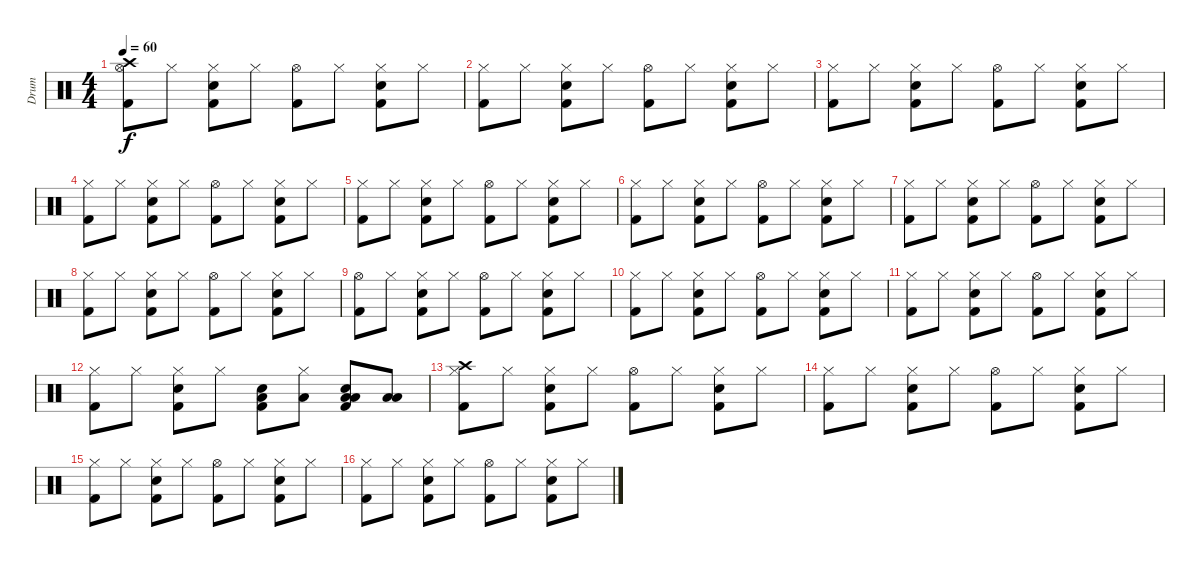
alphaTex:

\track ("Drum" "Drum") {instrument percussion}
\staff {score}
\articulation defaults
\ts (4 4)
\tempo 60
\clef neutral
\ks c
("Hi-Hat (open)" "Crash high (hit)" "Kick (hit) 2").8{dy f} "Hi-Hat (closed)".8 ("Snare (hit) 2" "Hi-Hat (closed)" "Kick (hit) 2").8 "Hi-Hat (closed)".8 ("Hi-Hat (open)" "Kick (hit) 2").8 "Hi-Hat (closed)".8 ("Snare (hit) 2" "Hi-Hat (closed)" "Kick (hit) 2").8 "Hi-Hat (closed)".8 |
("Hi-Hat (closed)" "Kick (hit) 2").8 "Hi-Hat (closed)".8 ("Hi-Hat (closed)" "Snare (hit) 2" "Kick (hit) 2").8 "Hi-Hat (closed)".8 ("Hi-Hat (open)" "Kick (hit) 2").8 "Hi-Hat (closed)".8 ("Snare (hit) 2" "Hi-Hat (closed)" "Kick (hit) 2").8 "Hi-Hat (closed)".8 |
("Hi-Hat (closed)" "Kick (hit) 2").8 "Hi-Hat (closed)".8 ("Hi-Hat (closed)" "Snare (hit) 2" "Kick (hit) 2").8 "Hi-Hat (closed)".8 ("Hi-Hat (open)" "Kick (hit) 2").8 "Hi-Hat (closed)".8 ("Snare (hit) 2" "Hi-Hat (closed)" "Kick (hit) 2").8 "Hi-Hat (closed)".8 |
("Hi-Hat (closed)" "Kick (hit) 2").8 "Hi-Hat (closed)".8 ("Hi-Hat (closed)" "Snare (hit) 2" "Kick (hit) 2").8 "Hi-Hat (closed)".8 ("Hi-Hat (open)" "Kick (hit) 2").8 "Hi-Hat (closed)".8 ("Snare (hit) 2" "Hi-Hat (closed)" "Kick (hit) 2").8 "Hi-Hat (closed)".8 |
("Hi-Hat (closed)" "Kick (hit) 2").8 "Hi-Hat (closed)".8 ("Hi-Hat (closed)" "Snare (hit) 2" "Kick (hit) 2").8 "Hi-Hat (closed)".8 ("Hi-Hat (open)" "Kick (hit) 2").8 "Hi-Hat (closed)".8 ("Snare (hit) 2" "Hi-Hat (closed)" "Kick (hit) 2").8 "Hi-Hat (closed)".8 |
("Hi-Hat (closed)" "Kick (hit) 2").8 "Hi-Hat (closed)".8 ("Hi-Hat (closed)" "Snare (hit) 2" "Kick (hit) 2").8 "Hi-Hat (closed)".8 ("Hi-Hat (open)" "Kick (hit) 2").8 "Hi-Hat (closed)".8 ("Snare (hit) 2" "Hi-Hat (closed)" "Kick (hit) 2").8 "Hi-Hat (closed)".8 |
("Hi-Hat (closed)" "Kick (hit) 2").8 "Hi-Hat (closed)".8 ("Hi-Hat (closed)" "Snare (hit) 2" "Kick (hit) 2").8 "Hi-Hat (closed)".8 ("Hi-Hat (open)" "Kick (hit) 2").8 "Hi-Hat (closed)".8 ("Snare (hit) 2" "Hi-Hat (closed)" "Kick (hit) 2").8 "Hi-Hat (closed)".8 |
("Hi-Hat (closed)" "Kick (hit) 2").8 "Hi-Hat (closed)".8 ("Hi-Hat (closed)" "Snare (hit) 2" "Kick (hit) 2").8 "Hi-Hat (closed)".8 ("Hi-Hat (open)" "Kick (hit) 2").8 "Hi-Hat (closed)".8 ("Snare (hit) 2" "Hi-Hat (closed)" "Kick (hit) 2").8 "Hi-Hat (closed)".8 |
("Hi-Hat (open)" "Kick (hit) 2").8 "Hi-Hat (closed)".8 ("Snare (hit) 2" "Hi-Hat (closed)" "Kick (hit) 2").8 "Hi-Hat (closed)".8 ("Hi-Hat (open)" "Kick (hit) 2").8 "Hi-Hat (closed)".8 ("Snare (hit) 2" "Hi-Hat (closed)" "Kick (hit) 2").8 "Hi-Hat (closed)".8 |
("Hi-Hat (closed)" "Kick (hit) 2").8 "Hi-Hat (closed)".8 ("Hi-Hat (closed)" "Snare (hit) 2" "Kick (hit) 2").8 "Hi-Hat (closed)".8 ("Hi-Hat (open)" "Kick (hit) 2").8 "Hi-Hat (closed)".8 ("Snare (hit) 2" "Hi-Hat (closed)" "Kick (hit) 2").8 "Hi-Hat (closed)".8 |
("Hi-Hat (closed)" "Kick (hit) 2").8 "Hi-Hat (closed)".8 ("Hi-Hat (closed)" "Snare (hit) 2" "Kick (hit) 2").8 "Hi-Hat (closed)".8 ("Hi-Hat (open)" "Kick (hit) 2").8 "Hi-Hat (closed)".8 ("Snare (hit) 2" "Hi-Hat (closed)" "Kick (hit) 2").8 "Hi-Hat (closed)".8 |
("Hi-Hat (closed)" "Kick (hit) 2").8 "Hi-Hat (closed)".8 ("Hi-Hat (closed)" "Snare (hit) 2" "Kick (hit) 2").8 "Hi-Hat (closed)".8 ("Snare (hit) 2" "Low Tom (hit)" "Kick (hit) 2").8 ("Hi-Hat (closed)" "Low Tom (hit)").8 ("Snare (hit) 2" "Low Tom (hit)" "Low Tom (hit)" "Kick (hit) 2").8 ("Low Tom (hit)" "Low Tom (hit)").8 |
("Hi-Hat (closed)" "Crash high (hit)" "Kick (hit) 2").8 "Hi-Hat (closed)".8 ("Hi-Hat (closed)" "Snare (hit) 2" "Kick (hit) 2").8 "Hi-Hat (closed)".8 ("Hi-Hat (open)" "Kick (hit) 2").8 "Hi-Hat (closed)".8 ("Snare (hit) 2" "Hi-Hat (closed)" "Kick (hit) 2").8 "Hi-Hat (closed)".8 |
("Hi-Hat (closed)" "Kick (hit) 2").8 "Hi-Hat (closed)".8 ("Hi-Hat (closed)" "Snare (hit) 2" "Kick (hit) 2").8 "Hi-Hat (closed)".8 ("Hi-Hat (open)" "Kick (hit) 2").8 "Hi-Hat (closed)".8 ("Snare (hit) 2" "Hi-Hat (closed)" "Kick (hit) 2").8 "Hi-Hat (closed)".8 |
("Hi-Hat (closed)" "Kick (hit) 2").8 "Hi-Hat (closed)".8 ("Hi-Hat (closed)" "Snare (hit) 2" "Kick (hit) 2").8 "Hi-Hat (closed)".8 ("Hi-Hat (open)" "Kick (hit) 2").8 "Hi-Hat (closed)".8 ("Snare (hit) 2" "Hi-Hat (closed)" "Kick (hit) 2").8 "Hi-Hat (closed)".8 |
("Hi-Hat (closed)" "Kick (hit) 2").8 "Hi-Hat (closed)".8 ("Hi-Hat (closed)" "Snare (hit) 2" "Kick (hit) 2").8 "Hi-Hat (closed)".8 ("Hi-Hat (open)" "Kick (hit) 2").8 "Hi-Hat (closed)".8 ("Snare (hit) 2" "Hi-Hat (closed)" "Kick (hit) 2").8 "Hi-Hat (closed)".8
